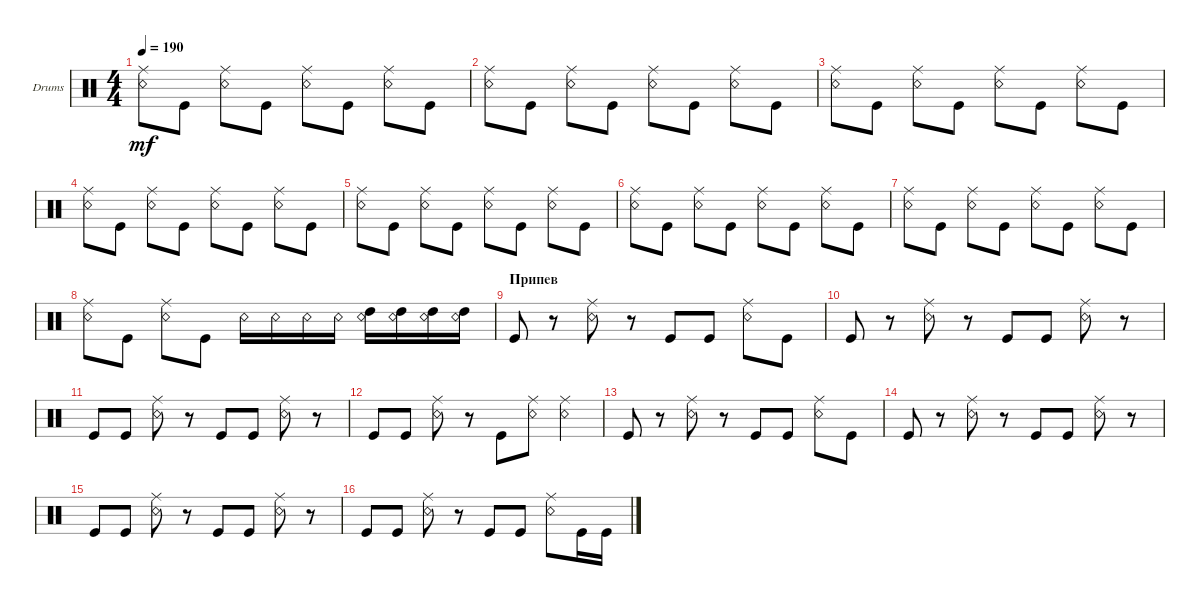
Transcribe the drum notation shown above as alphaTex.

\defaultSystemsLayout 4
\bracketExtendMode groupsimilarinstruments
\firstSystemTrackNameOrientation horizontal
\otherSystemsTrackNameOrientation horizontal
\track ("Drumkit" "Drums") {instrument percussion}
\staff {score}
\articulation defaults
\ts (4 4)
\tempo 190
\clef neutral
\ks c
("Snare (rim shot)" "Ride (middle)").8{dy mf} "Kick (hit)".8 ("Snare (rim shot)" "Ride (middle)").8 "Kick (hit)".8 ("Snare (rim shot)" "Ride (middle)").8 "Kick (hit)".8 ("Snare (rim shot)" "Ride (middle)").8 "Kick (hit)".8 |
("Snare (rim shot)" "Ride (middle)").8 "Kick (hit)".8 ("Snare (rim shot)" "Ride (middle)").8 "Kick (hit)".8 ("Snare (rim shot)" "Ride (middle)").8 "Kick (hit)".8 ("Snare (rim shot)" "Ride (middle)").8 "Kick (hit)".8 |
("Snare (rim shot)" "Ride (middle)").8 "Kick (hit)".8 ("Snare (rim shot)" "Ride (middle)").8 "Kick (hit)".8 ("Snare (rim shot)" "Ride (middle)").8 "Kick (hit)".8 ("Snare (rim shot)" "Ride (middle)").8 "Kick (hit)".8 |
("Snare (rim shot)" "Ride (middle)").8 "Kick (hit)".8 ("Snare (rim shot)" "Ride (middle)").8 "Kick (hit)".8 ("Snare (rim shot)" "Ride (middle)").8 "Kick (hit)".8 ("Snare (rim shot)" "Ride (middle)").8 "Kick (hit)".8 |
("Snare (rim shot)" "Ride (middle)").8 "Kick (hit)".8 ("Snare (rim shot)" "Ride (middle)").8 "Kick (hit)".8 ("Snare (rim shot)" "Ride (middle)").8 "Kick (hit)".8 ("Snare (rim shot)" "Ride (middle)").8 "Kick (hit)".8 |
("Snare (rim shot)" "Ride (middle)").8 "Kick (hit)".8 ("Snare (rim shot)" "Ride (middle)").8 "Kick (hit)".8 ("Snare (rim shot)" "Ride (middle)").8 "Kick (hit)".8 ("Snare (rim shot)" "Ride (middle)").8 "Kick (hit)".8 |
("Snare (rim shot)" "Ride (middle)").8 "Kick (hit)".8 ("Snare (rim shot)" "Ride (middle)").8 "Kick (hit)".8 ("Snare (rim shot)" "Ride (middle)").8 "Kick (hit)".8 ("Snare (rim shot)" "Ride (middle)").8 "Kick (hit)".8 |
("Snare (rim shot)" "Ride (middle)").8 "Kick (hit)".8 ("Snare (rim shot)" "Ride (middle)").8 "Kick (hit)".8 "Snare (rim shot)".16 "Snare (rim shot)".16 "Snare (rim shot)".16 "Snare (rim shot)".16 ("High Tom (hit)" "Snare (rim shot)").16 ("High Tom (hit)" "Snare (rim shot)").16 ("High Tom (hit)" "Snare (rim shot)").16 ("High Tom (hit)" "Snare (rim shot)").16 |
\section ("" "Припев")
"Kick (hit)".8 r.8 ("Snare (rim shot)" "Ride (middle)").8 r.8 "Kick (hit)".8 "Kick (hit)".8 ("Snare (rim shot)" "Ride (middle)").8 "Kick (hit)".8 |
"Kick (hit)".8 r.8 ("Snare (rim shot)" "Ride (middle)").8 r.8 "Kick (hit)".8 "Kick (hit)".8 ("Snare (rim shot)" "Ride (middle)").8 r.8 |
"Kick (hit)".8 "Kick (hit)".8 ("Snare (rim shot)" "Ride (middle)").8 r.8 "Kick (hit)".8 "Kick (hit)".8 ("Snare (rim shot)" "Ride (middle)").8 r.8 |
"Kick (hit)".8 "Kick (hit)".8 ("Snare (rim shot)" "Ride (middle)").8 r.8 "Kick (hit)".8 ("Snare (rim shot)" "Ride (middle)").8 ("Snare (rim shot)" "Ride (middle)").4 |
"Kick (hit)".8 r.8 ("Snare (rim shot)" "Ride (middle)").8 r.8 "Kick (hit)".8 "Kick (hit)".8 ("Snare (rim shot)" "Ride (middle)").8 "Kick (hit)".8 |
"Kick (hit)".8 r.8 ("Snare (rim shot)" "Ride (middle)").8 r.8 "Kick (hit)".8 "Kick (hit)".8 ("Snare (rim shot)" "Ride (middle)").8 r.8 |
"Kick (hit)".8 "Kick (hit)".8 ("Snare (rim shot)" "Ride (middle)").8 r.8 "Kick (hit)".8 "Kick (hit)".8 ("Snare (rim shot)" "Ride (middle)").8 r.8 |
"Kick (hit)".8 "Kick (hit)".8 ("Snare (rim shot)" "Ride (middle)").8 r.8 "Kick (hit)".8 "Kick (hit)".8 ("Snare (rim shot)" "Ride (middle)").8 "Kick (hit)".16 "Kick (hit)".16
